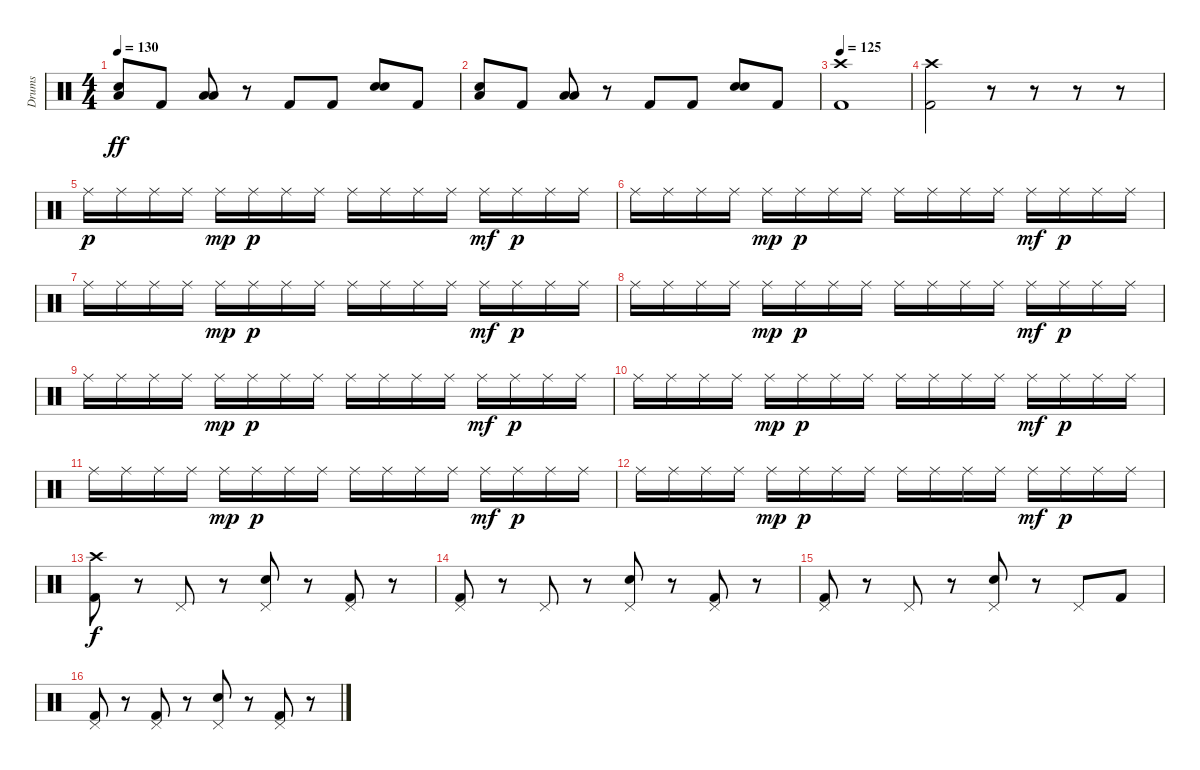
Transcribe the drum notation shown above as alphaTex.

\track ("Drums" "Drums") {instrument percussion}
\staff {score}
\articulation defaults
\ts (4 4)
\tempo 130
\clef neutral
\ks c
("Electric Snare (hit)" "Low Tom (hit)").8{dy ff} "Kick (hit) 2".8 ("Low Tom (hit)" "Low Tom (hit)").8 r.8 "Kick (hit) 2".8 "Kick (hit) 2".8 ("Electric Snare (hit)" "Electric Snare (hit)").8{bd 240} "Kick (hit) 2".8 |
("Electric Snare (hit)" "Low Tom (hit)").8 "Kick (hit) 2".8 ("Low Tom (hit)" "Low Tom (hit)").8 r.8 "Kick (hit) 2".8 "Kick (hit) 2".8 ("Electric Snare (hit)" "Electric Snare (hit)").8{bd 240} "Kick (hit) 2".8 |
\tempo 125
("Crash high (hit)" "Kick (hit) 2").1 |
("Crash high (hit)" "Kick (hit) 2").2 r.8 r.8 r.8 r.8 |
"Ride (middle)".16{dy p} "Ride (middle)".16 "Ride (middle)".16 "Ride (middle)".16 "Ride (middle)".16{dy mp} "Ride (middle)".16{dy p} "Ride (middle)".16 "Ride (middle)".16 "Ride (middle)".16 "Ride (middle)".16 "Ride (middle)".16 "Ride (middle)".16 "Ride (middle)".16{dy mf} "Ride (middle)".16{dy p} "Ride (middle)".16 "Ride (middle)".16 |
"Ride (middle)".16 "Ride (middle)".16 "Ride (middle)".16 "Ride (middle)".16 "Ride (middle)".16{dy mp} "Ride (middle)".16{dy p} "Ride (middle)".16 "Ride (middle)".16 "Ride (middle)".16 "Ride (middle)".16 "Ride (middle)".16 "Ride (middle)".16 "Ride (middle)".16{dy mf} "Ride (middle)".16{dy p} "Ride (middle)".16 "Ride (middle)".16 |
"Ride (middle)".16 "Ride (middle)".16 "Ride (middle)".16 "Ride (middle)".16 "Ride (middle)".16{dy mp} "Ride (middle)".16{dy p} "Ride (middle)".16 "Ride (middle)".16 "Ride (middle)".16 "Ride (middle)".16 "Ride (middle)".16 "Ride (middle)".16 "Ride (middle)".16{dy mf} "Ride (middle)".16{dy p} "Ride (middle)".16 "Ride (middle)".16 |
"Ride (middle)".16 "Ride (middle)".16 "Ride (middle)".16 "Ride (middle)".16 "Ride (middle)".16{dy mp} "Ride (middle)".16{dy p} "Ride (middle)".16 "Ride (middle)".16 "Ride (middle)".16 "Ride (middle)".16 "Ride (middle)".16 "Ride (middle)".16 "Ride (middle)".16{dy mf} "Ride (middle)".16{dy p} "Ride (middle)".16 "Ride (middle)".16 |
"Ride (middle)".16 "Ride (middle)".16 "Ride (middle)".16 "Ride (middle)".16 "Ride (middle)".16{dy mp} "Ride (middle)".16{dy p} "Ride (middle)".16 "Ride (middle)".16 "Ride (middle)".16 "Ride (middle)".16 "Ride (middle)".16 "Ride (middle)".16 "Ride (middle)".16{dy mf} "Ride (middle)".16{dy p} "Ride (middle)".16 "Ride (middle)".16 |
"Ride (middle)".16 "Ride (middle)".16 "Ride (middle)".16 "Ride (middle)".16 "Ride (middle)".16{dy mp} "Ride (middle)".16{dy p} "Ride (middle)".16 "Ride (middle)".16 "Ride (middle)".16 "Ride (middle)".16 "Ride (middle)".16 "Ride (middle)".16 "Ride (middle)".16{dy mf} "Ride (middle)".16{dy p} "Ride (middle)".16 "Ride (middle)".16 |
"Ride (middle)".16 "Ride (middle)".16 "Ride (middle)".16 "Ride (middle)".16 "Ride (middle)".16{dy mp} "Ride (middle)".16{dy p} "Ride (middle)".16 "Ride (middle)".16 "Ride (middle)".16 "Ride (middle)".16 "Ride (middle)".16 "Ride (middle)".16 "Ride (middle)".16{dy mf} "Ride (middle)".16{dy p} "Ride (middle)".16 "Ride (middle)".16 |
"Ride (middle)".16 "Ride (middle)".16 "Ride (middle)".16 "Ride (middle)".16 "Ride (middle)".16{dy mp} "Ride (middle)".16{dy p} "Ride (middle)".16 "Ride (middle)".16 "Ride (middle)".16 "Ride (middle)".16 "Ride (middle)".16 "Ride (middle)".16 "Ride (middle)".16{dy mf} "Ride (middle)".16{dy p} "Ride (middle)".16 "Ride (middle)".16 |
("Crash high (hit)" "Kick (hit) 2").8{dy f} r.8 "Pedal Hi-Hat (hit)".8 r.8 ("Pedal Hi-Hat (hit)" "Electric Snare (hit)").8 r.8 ("Pedal Hi-Hat (hit)" "Kick (hit) 2").8 r.8 |
("Pedal Hi-Hat (hit)" "Kick (hit) 2").8 r.8 "Pedal Hi-Hat (hit)".8 r.8 ("Pedal Hi-Hat (hit)" "Electric Snare (hit)").8 r.8 ("Pedal Hi-Hat (hit)" "Kick (hit) 2").8 r.8 |
("Pedal Hi-Hat (hit)" "Kick (hit) 2").8 r.8 "Pedal Hi-Hat (hit)".8 r.8 ("Pedal Hi-Hat (hit)" "Electric Snare (hit)").8 r.8 "Pedal Hi-Hat (hit)".8 "Kick (hit) 2".8 |
("Pedal Hi-Hat (hit)" "Kick (hit) 2").8 r.8 ("Pedal Hi-Hat (hit)" "Kick (hit) 2").8 r.8 ("Pedal Hi-Hat (hit)" "Electric Snare (hit)").8 r.8 ("Pedal Hi-Hat (hit)" "Kick (hit) 2").8 r.8
